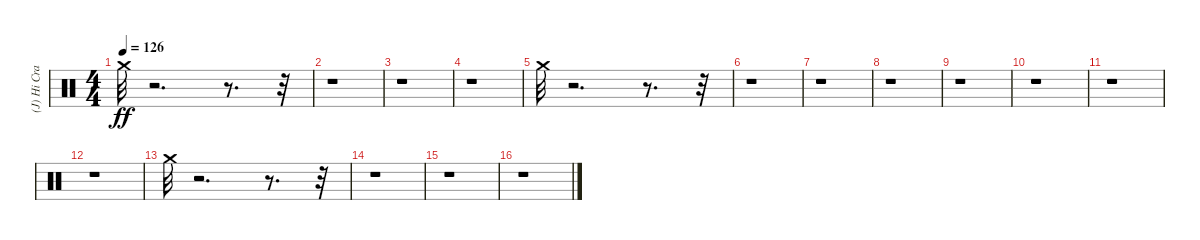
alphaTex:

\track ("(J) Hi Crash Cymbal" "(J) Hi Cra") {instrument percussion}
\staff {score}
\articulation defaults
\ts (4 4)
\tempo 126
\clef neutral
\ks c "Crash medium (hit)".32{dy ff}
r.2{d} r.8{d} r.32 |
r.1 |
r.1 |
r.1 |
"Crash medium (hit)".32 r.2{d} r.8{d} r.32 |
r.1 |
r.1 |
r.1 |
r.1 |
r.1 |
r.1 |
r.1 |
"Crash medium (hit)".32 r.2{d} r.8{d} r.32 |
r.1 |
r.1 |
r.1
